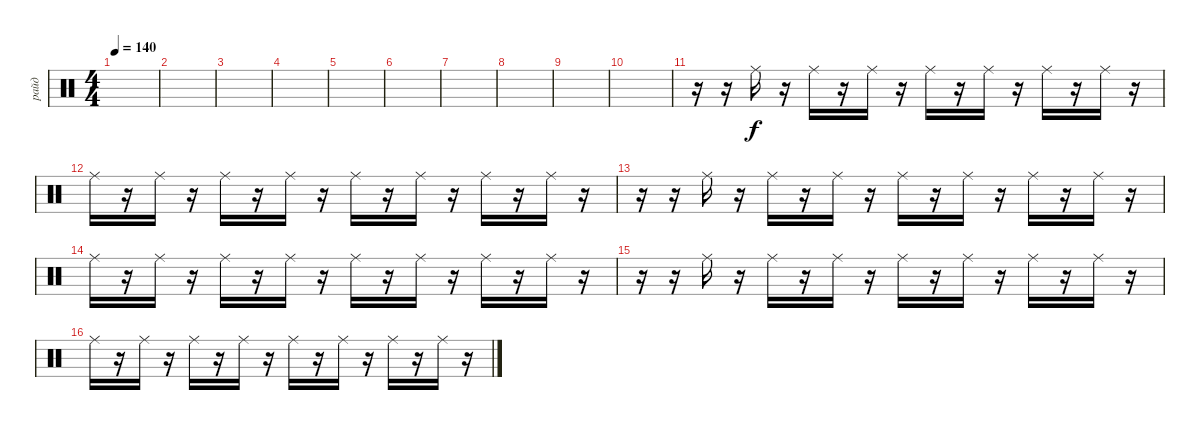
\track ("райд" "райд") {mute instrument percussion}
\staff {score}
\articulation defaults
\ts (4 4)
\tempo 140
\clef neutral
\ks c
|
|
|
|
|
|
|
|
|
|
r.16 r.16 "Ride (middle)".16 r.16 "Ride (middle)".16 r.16 "Ride (middle)".16 r.16 "Ride (middle)".16 r.16 "Ride (middle)".16 r.16 "Ride (middle)".16 r.16 "Ride (middle)".16 r.16 |
"Ride (middle)".16 r.16 "Ride (middle)".16 r.16 "Ride (middle)".16 r.16 "Ride (middle)".16 r.16 "Ride (middle)".16 r.16 "Ride (middle)".16 r.16 "Ride (middle)".16 r.16 "Ride (middle)".16 r.16 |
r.16 r.16 "Ride (middle)".16 r.16 "Ride (middle)".16 r.16 "Ride (middle)".16 r.16 "Ride (middle)".16 r.16 "Ride (middle)".16 r.16 "Ride (middle)".16 r.16 "Ride (middle)".16 r.16 |
"Ride (middle)".16 r.16 "Ride (middle)".16 r.16 "Ride (middle)".16 r.16 "Ride (middle)".16 r.16 "Ride (middle)".16 r.16 "Ride (middle)".16 r.16 "Ride (middle)".16 r.16 "Ride (middle)".16 r.16 |
r.16 r.16 "Ride (middle)".16 r.16 "Ride (middle)".16 r.16 "Ride (middle)".16 r.16 "Ride (middle)".16 r.16 "Ride (middle)".16 r.16 "Ride (middle)".16 r.16 "Ride (middle)".16 r.16 |
"Ride (middle)".16 r.16 "Ride (middle)".16 r.16 "Ride (middle)".16 r.16 "Ride (middle)".16 r.16 "Ride (middle)".16 r.16 "Ride (middle)".16 r.16 "Ride (middle)".16 r.16 "Ride (middle)".16 r.16
